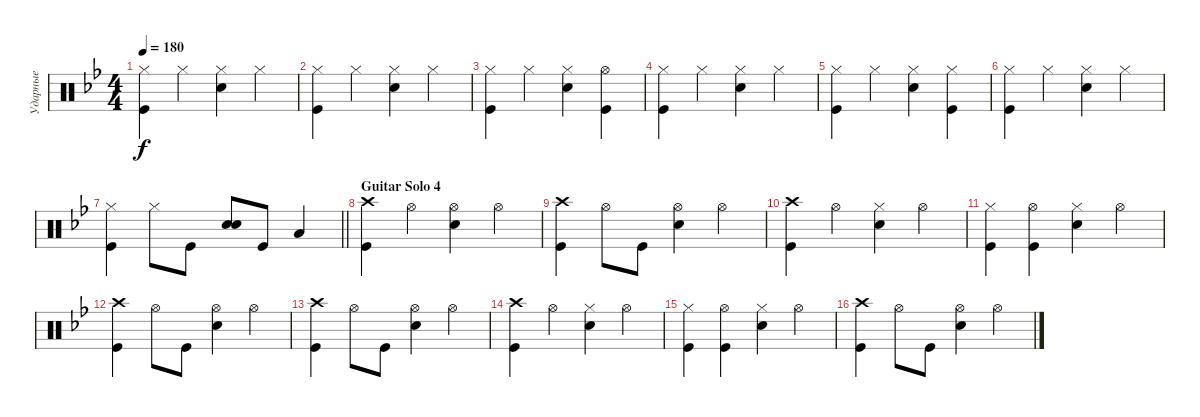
\track ("Ударные" "Ударные") {instrument percussion}
\staff {score}
\articulation defaults
\ts (4 4)
\tempo 180
\clef neutral
\ks gminor
("Hi-Hat (closed)" "Kick (hit)").4{dy f} "Hi-Hat (closed)".4 ("Snare (hit) 2" "Hi-Hat (closed)").4 "Hi-Hat (closed)".4 |
("Hi-Hat (closed)" "Kick (hit)").4 "Hi-Hat (closed)".4 ("Snare (hit) 2" "Hi-Hat (closed)").4 "Hi-Hat (closed)".4 |
("Hi-Hat (closed)" "Kick (hit)").4 "Hi-Hat (closed)".4 ("Snare (hit) 2" "Hi-Hat (closed)").4 ("Hi-Hat (open)" "Kick (hit)").4 |
("Hi-Hat (closed)" "Kick (hit)").4 "Hi-Hat (closed)".4 ("Snare (hit) 2" "Hi-Hat (closed)").4 "Hi-Hat (closed)".4 |
("Hi-Hat (closed)" "Kick (hit)").4 "Hi-Hat (closed)".4 ("Snare (hit) 2" "Hi-Hat (closed)").4 ("Hi-Hat (closed)" "Kick (hit)").4 |
("Hi-Hat (closed)" "Kick (hit)").4 "Hi-Hat (closed)".4 ("Snare (hit) 2" "Hi-Hat (closed)").4 "Hi-Hat (closed)".4 |
\barLineRight lightlight
("Hi-Hat (closed)" "Kick (hit)").4 "Hi-Hat (closed)".8 "Kick (hit)".8 ("Snare (hit) 2" "Snare (hit) 2").8{bd 240} "Kick (hit)".8 "Low Tom (hit)".4 |
\section ("" "Guitar Solo 4")
("Kick (hit)" "Crash high (hit)").4 "Hi-Hat (open)".4 ("Hi-Hat (open)" "Snare (hit) 2").4 "Hi-Hat (open)".4 |
("Crash high (hit)" "Kick (hit)").4 "Hi-Hat (open)".8 "Kick (hit)".8 ("Hi-Hat (open)" "Snare (hit) 2").4 "Hi-Hat (open)".4 |
("Kick (hit)" "Crash high (hit)").4 "Hi-Hat (open)".4 ("Hi-Hat (closed)" "Snare (hit) 2").4 "Hi-Hat (open)".4 |
("Hi-Hat (closed)" "Kick (hit)").4 ("Hi-Hat (open)" "Kick (hit)").4 ("Hi-Hat (closed)" "Snare (hit) 2").4 "Hi-Hat (open)".4 |
("Crash high (hit)" "Kick (hit)").4 "Hi-Hat (open)".8 "Kick (hit)".8 ("Hi-Hat (open)" "Snare (hit) 2").4 "Hi-Hat (open)".4 |
("Crash high (hit)" "Kick (hit)").4 "Hi-Hat (open)".8 "Kick (hit)".8 ("Hi-Hat (open)" "Snare (hit) 2").4 "Hi-Hat (open)".4 |
("Kick (hit)" "Crash high (hit)").4 "Hi-Hat (open)".4 ("Hi-Hat (closed)" "Snare (hit) 2").4 "Hi-Hat (open)".4 |
("Hi-Hat (closed)" "Kick (hit)").4 ("Hi-Hat (open)" "Kick (hit)").4 ("Hi-Hat (closed)" "Snare (hit) 2").4 "Hi-Hat (open)".4 |
("Crash high (hit)" "Kick (hit)").4 "Hi-Hat (open)".8 "Kick (hit)".8 ("Hi-Hat (open)" "Snare (hit) 2").4 "Hi-Hat (open)".4
